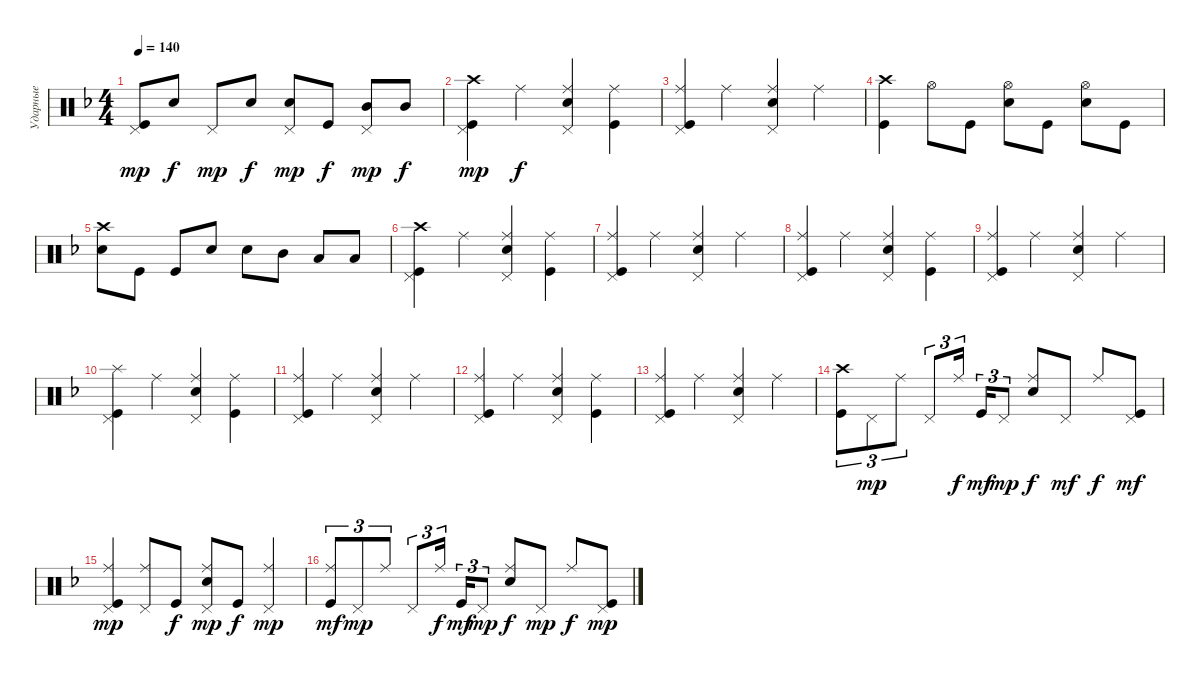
\track ("Ударные" "Ударные") {instrument percussion}
\staff {score}
\articulation defaults
\ts (4 4)
\tempo 140
\clef neutral
\ks dminor
("Pedal Hi-Hat (hit)" "Kick (hit)").8{dy mp} "Snare (hit) 2".8{dy f} "Pedal Hi-Hat (hit)".8{dy mp} "Snare (hit) 2".8{dy f} ("Snare (hit) 2" "Pedal Hi-Hat (hit)").8{dy mp} "Kick (hit)".8{dy f} ("Mid Tom (hit)" "Pedal Hi-Hat (hit)").8{dy mp} "Mid Tom (hit)".8{dy f} |
("Kick (hit)" "Crash high (hit)" "Pedal Hi-Hat (hit)").4{dy mp} "Ride (middle)".4{dy f} ("Ride (middle)" "Snare (hit) 2" "Pedal Hi-Hat (hit)").4 ("Ride (middle)" "Kick (hit)").4 |
("Ride (middle)" "Pedal Hi-Hat (hit)" "Kick (hit)").4 "Ride (middle)".4 ("Ride (middle)" "Pedal Hi-Hat (hit)" "Snare (hit) 2").4 "Ride (middle)".4 |
("Kick (hit)" "Crash high (hit)").4 "Hi-Hat (open)".8 "Kick (hit)".8 ("Hi-Hat (open)" "Snare (hit) 2").8 "Kick (hit)".8 ("Snare (hit) 2" "Hi-Hat (open)").8 "Kick (hit)".8 |
("Snare (hit) 2" "Crash high (hit)").8 "Kick (hit)".8 "Kick (hit)".8 "Snare (hit) 2".8 "Snare (hit) 2".8 "Mid Tom (hit)".8 "Low Tom (hit)".8 "Low Tom (hit)".8 |
("Kick (hit)" "Crash high (hit)" "Pedal Hi-Hat (hit)").4 "Ride (middle)".4 ("Ride (middle)" "Snare (hit) 2" "Pedal Hi-Hat (hit)").4 ("Ride (middle)" "Kick (hit)").4 |
("Ride (middle)" "Pedal Hi-Hat (hit)" "Kick (hit)").4 "Ride (middle)".4 ("Ride (middle)" "Pedal Hi-Hat (hit)" "Snare (hit) 2").4 "Ride (middle)".4 |
("Kick (hit)" "Ride (middle)" "Pedal Hi-Hat (hit)").4 "Ride (middle)".4 ("Ride (middle)" "Snare (hit) 2" "Pedal Hi-Hat (hit)").4 ("Ride (middle)" "Kick (hit)").4 |
("Ride (middle)" "Pedal Hi-Hat (hit)" "Kick (hit)").4 "Ride (middle)".4 ("Ride (middle)" "Pedal Hi-Hat (hit)" "Snare (hit) 2").4 "Ride (middle)".4 |
("Kick (hit)" "Splash (hit)" "Pedal Hi-Hat (hit)").4 "Ride (middle)".4 ("Ride (middle)" "Snare (hit) 2" "Pedal Hi-Hat (hit)").4 ("Ride (middle)" "Kick (hit)").4 |
("Ride (middle)" "Pedal Hi-Hat (hit)" "Kick (hit)").4 "Ride (middle)".4 ("Ride (middle)" "Pedal Hi-Hat (hit)" "Snare (hit) 2").4 "Ride (middle)".4 |
("Kick (hit)" "Ride (middle)" "Pedal Hi-Hat (hit)").4 "Ride (middle)".4 ("Ride (middle)" "Snare (hit) 2" "Pedal Hi-Hat (hit)").4 ("Ride (middle)" "Kick (hit)").4 |
("Ride (middle)" "Pedal Hi-Hat (hit)" "Kick (hit)").4 "Ride (middle)".4 ("Ride (middle)" "Pedal Hi-Hat (hit)" "Snare (hit) 2").4 "Ride (middle)".4 |
("Kick (hit)" "Crash high (hit)").8{tu (3 2)} "Pedal Hi-Hat (hit)".8{tu (3 2) dy mp} "Ride (middle)".8{tu (3 2)} "Pedal Hi-Hat (hit)".8{tu (3 2)} "Ride (middle)".16{tu (3 2) dy f beam splitsecondary} "Kick (hit)".16{tu (3 2) dy mf} "Pedal Hi-Hat (hit)".8{tu (3 2) dy mp} ("Ride (middle)" "Snare (hit) 2").8{dy f} "Pedal Hi-Hat (hit)".8{dy mf} "Ride (middle)".8{dy f} ("Pedal Hi-Hat (hit)" "Kick (hit)").8{dy mf} |
("Kick (hit)" "Ride (middle)" "Pedal Hi-Hat (hit)").4{dy mp} ("Ride (middle)" "Pedal Hi-Hat (hit)").8 "Kick (hit)".8{dy f} ("Snare (hit) 2" "Ride (middle)" "Pedal Hi-Hat (hit)").8{dy mp} "Kick (hit)".8{dy f} ("Ride (middle)" "Pedal Hi-Hat (hit)").4{dy mp} |
("Ride (middle)" "Kick (hit)").8{tu (3 2) dy mf} "Pedal Hi-Hat (hit)".8{tu (3 2) dy mp} "Ride (middle)".8{tu (3 2)} "Pedal Hi-Hat (hit)".8{tu (3 2)} "Ride (middle)".16{tu (3 2) dy f beam splitsecondary} "Kick (hit)".16{tu (3 2) dy mf} "Pedal Hi-Hat (hit)".8{tu (3 2) dy mp} ("Ride (middle)" "Snare (hit) 2").8{dy f} "Pedal Hi-Hat (hit)".8{dy mp} "Ride (middle)".8{dy f} ("Kick (hit)" "Pedal Hi-Hat (hit)").8{dy mp}
